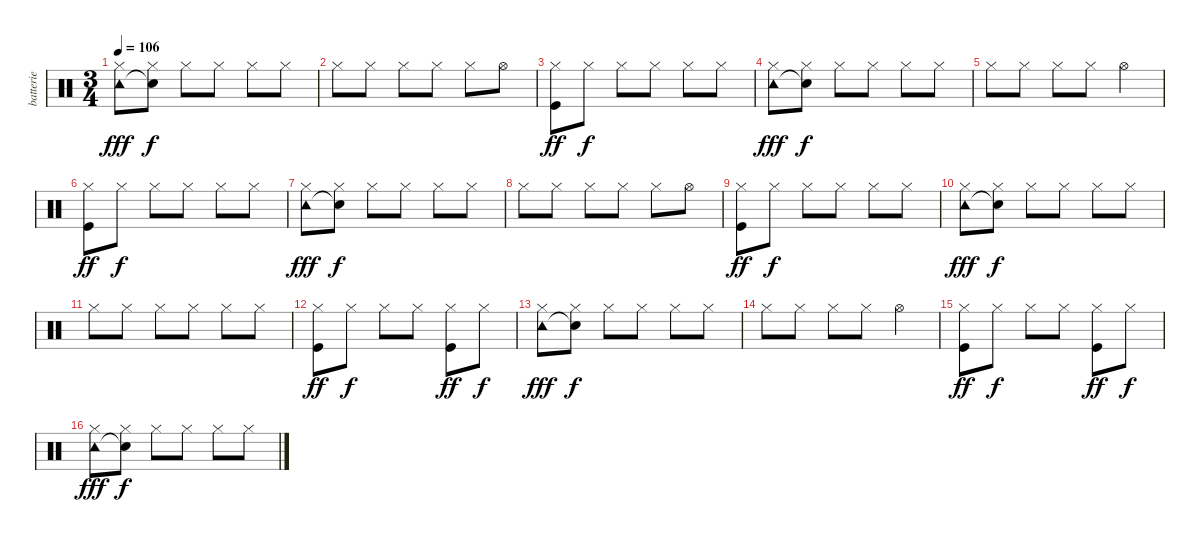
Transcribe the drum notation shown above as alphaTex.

\track ("batterie" "batterie") {instrument percussion}
\staff {score}
\articulation defaults
\ts (3 4)
\tempo 106
\clef neutral
\ks c
("Tambourine (hit)" "Hi-Hat (closed)").8{dy fff} ("Snare (hit)"{t} "Hi-Hat (closed)").8{dy f} "Hi-Hat (closed)".8 "Hi-Hat (closed)".8 "Hi-Hat (closed)".8 "Hi-Hat (closed)".8 |
"Hi-Hat (closed)".8 "Hi-Hat (closed)".8 "Hi-Hat (closed)".8 "Hi-Hat (closed)".8 "Hi-Hat (closed)".8 "Hi-Hat (open)".8 |
("Hi-Hat (closed)" "Kick (hit)").8{dy ff} "Hi-Hat (closed)".8{dy f} "Hi-Hat (closed)".8 "Hi-Hat (closed)".8 "Hi-Hat (closed)".8 "Hi-Hat (closed)".8 |
("Tambourine (hit)" "Hi-Hat (closed)").8{dy fff} ("Snare (hit)"{t} "Hi-Hat (closed)").8{dy f} "Hi-Hat (closed)".8 "Hi-Hat (closed)".8 "Hi-Hat (closed)".8 "Hi-Hat (closed)".8 |
"Hi-Hat (closed)".8 "Hi-Hat (closed)".8 "Hi-Hat (closed)".8 "Hi-Hat (closed)".8 "Hi-Hat (open)".4 |
("Hi-Hat (closed)" "Kick (hit)").8{dy ff} "Hi-Hat (closed)".8{dy f} "Hi-Hat (closed)".8 "Hi-Hat (closed)".8 "Hi-Hat (closed)".8 "Hi-Hat (closed)".8 |
("Tambourine (hit)" "Hi-Hat (closed)").8{dy fff} ("Snare (hit)"{t} "Hi-Hat (closed)").8{dy f} "Hi-Hat (closed)".8 "Hi-Hat (closed)".8 "Hi-Hat (closed)".8 "Hi-Hat (closed)".8 |
"Hi-Hat (closed)".8 "Hi-Hat (closed)".8 "Hi-Hat (closed)".8 "Hi-Hat (closed)".8 "Hi-Hat (closed)".8 "Hi-Hat (open)".8 |
("Hi-Hat (closed)" "Kick (hit)").8{dy ff} "Hi-Hat (closed)".8{dy f} "Hi-Hat (closed)".8 "Hi-Hat (closed)".8 "Hi-Hat (closed)".8 "Hi-Hat (closed)".8 |
("Tambourine (hit)" "Hi-Hat (closed)").8{dy fff} ("Snare (hit)"{t} "Hi-Hat (closed)").8{dy f} "Hi-Hat (closed)".8 "Hi-Hat (closed)".8 "Hi-Hat (closed)".8 "Hi-Hat (closed)".8 |
"Hi-Hat (closed)".8 "Hi-Hat (closed)".8 "Hi-Hat (closed)".8 "Hi-Hat (closed)".8 "Hi-Hat (closed)".8 "Hi-Hat (closed)".8 |
("Hi-Hat (closed)" "Kick (hit)").8{dy ff} "Hi-Hat (closed)".8{dy f} "Hi-Hat (closed)".8 "Hi-Hat (closed)".8 ("Hi-Hat (closed)" "Kick (hit)").8{dy ff} "Hi-Hat (closed)".8{dy f} |
("Tambourine (hit)" "Hi-Hat (closed)").8{dy fff} ("Snare (hit)"{t} "Hi-Hat (closed)").8{dy f} "Hi-Hat (closed)".8 "Hi-Hat (closed)".8 "Hi-Hat (closed)".8 "Hi-Hat (closed)".8 |
"Hi-Hat (closed)".8 "Hi-Hat (closed)".8 "Hi-Hat (closed)".8 "Hi-Hat (closed)".8 "Hi-Hat (open)".4 |
("Hi-Hat (closed)" "Kick (hit)").8{dy ff} "Hi-Hat (closed)".8{dy f} "Hi-Hat (closed)".8 "Hi-Hat (closed)".8 ("Hi-Hat (closed)" "Kick (hit)").8{dy ff} "Hi-Hat (closed)".8{dy f} |
("Tambourine (hit)" "Hi-Hat (closed)").8{dy fff} ("Snare (hit)"{t} "Hi-Hat (closed)").8{dy f} "Hi-Hat (closed)".8 "Hi-Hat (closed)".8 "Hi-Hat (closed)".8 "Hi-Hat (closed)".8
